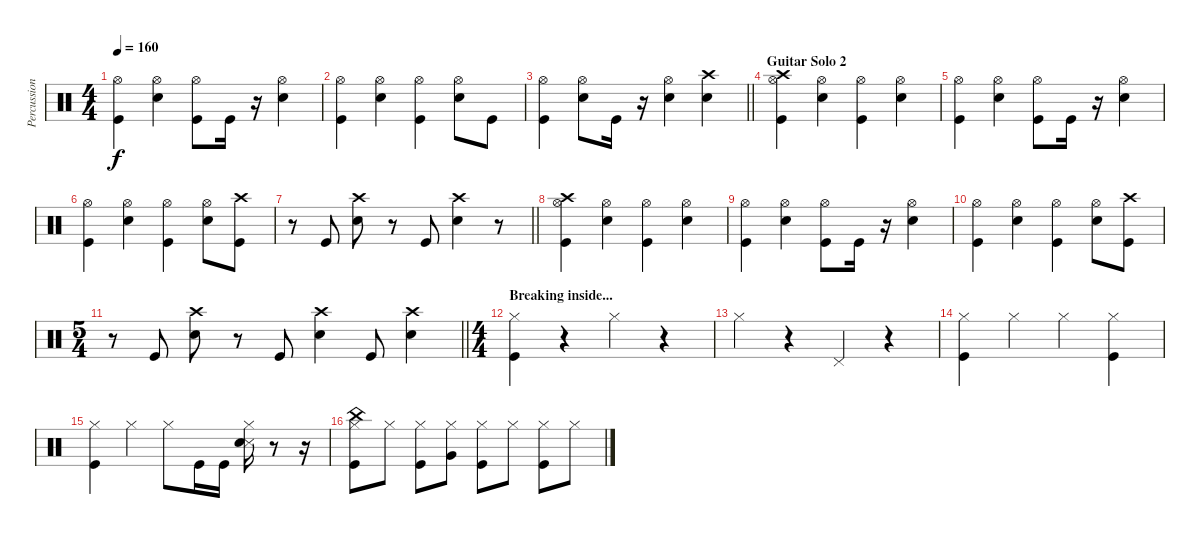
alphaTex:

\track ("Percussion" "Percussion") {instrument percussion}
\staff {score}
\articulation defaults
\ts (4 4)
\tempo 160
\clef neutral
\ks c
("Kick (hit)" "Hi-Hat (open)").4{dy f} ("Hi-Hat (open)" "Snare (hit) 2").4 ("Kick (hit)" "Hi-Hat (open)").8 "Kick (hit)".16 r.16 ("Snare (hit) 2" "Hi-Hat (open)").4 |
("Kick (hit)" "Hi-Hat (open)").4 ("Hi-Hat (open)" "Snare (hit) 2").4 ("Kick (hit)" "Hi-Hat (open)").4 ("Snare (hit) 2" "Hi-Hat (open)").8 "Kick (hit)".8 |
\barLineRight lightlight
("Kick (hit)" "Hi-Hat (open)").4 ("Snare (hit) 2" "Hi-Hat (open)").8 "Kick (hit)".16 r.16 ("Snare (hit) 2" "Hi-Hat (open)").4 ("Snare (hit) 2" "Crash high (hit)").4 |
\section ("" "Guitar Solo 2")
("Kick (hit)" "Crash high (hit)" "Hi-Hat (open)").4 ("Hi-Hat (open)" "Snare (hit) 2").4 ("Kick (hit)" "Hi-Hat (open)").4 ("Snare (hit) 2" "Hi-Hat (open)").4 |
("Kick (hit)" "Hi-Hat (open)").4 ("Hi-Hat (open)" "Snare (hit) 2").4 ("Kick (hit)" "Hi-Hat (open)").8 "Kick (hit)".16 r.16 ("Snare (hit) 2" "Hi-Hat (open)").4 |
("Kick (hit)" "Hi-Hat (open)").4 ("Hi-Hat (open)" "Snare (hit) 2").4 ("Kick (hit)" "Hi-Hat (open)").4 ("Snare (hit) 2" "Hi-Hat (open)").8 ("Kick (hit)" "Crash high (hit)").8 |
\barLineRight lightlight
r.8 "Kick (hit)".8 ("Snare (hit) 2" "Crash high (hit)").8 r.8 "Kick (hit)".8 ("Snare (hit) 2" "Crash high (hit)").4 r.8 |
("Kick (hit)" "Crash high (hit)" "Hi-Hat (open)").4 ("Hi-Hat (open)" "Snare (hit) 2").4 ("Kick (hit)" "Hi-Hat (open)").4 ("Snare (hit) 2" "Hi-Hat (open)").4 |
("Kick (hit)" "Hi-Hat (open)").4 ("Hi-Hat (open)" "Snare (hit) 2").4 ("Kick (hit)" "Hi-Hat (open)").8 "Kick (hit)".16 r.16 ("Snare (hit) 2" "Hi-Hat (open)").4 |
("Kick (hit)" "Hi-Hat (open)").4 ("Hi-Hat (open)" "Snare (hit) 2").4 ("Kick (hit)" "Hi-Hat (open)").4 ("Snare (hit) 2" "Hi-Hat (open)").8 ("Kick (hit)" "Crash high (hit)").8 |
\ts (5 4)
\barLineRight lightlight
r.8 "Kick (hit)".8 ("Snare (hit) 2" "Crash high (hit)").8 r.8 "Kick (hit)".8 ("Snare (hit) 2" "Crash high (hit)").4 "Kick (hit)".8 ("Snare (hit) 2" "Crash high (hit)").4 |
\ts (4 4)
\section ("" "Breaking inside...")
("Hi-Hat (closed)" "Kick (hit)").4 r.4 "Hi-Hat (closed)".4 r.4 |
"Hi-Hat (closed)".4 r.4 "Pedal Hi-Hat (hit)".4 r.4 |
("Hi-Hat (closed)" "Kick (hit)").4 "Hi-Hat (closed)".4 "Hi-Hat (closed)".4 ("Hi-Hat (closed)" "Kick (hit)").4 |
("Hi-Hat (closed)" "Kick (hit)").4 "Hi-Hat (closed)".4 "Hi-Hat (closed)".8 "Kick (hit)".16 "Kick (hit)".16 ("Hi-Hat (closed)" "Snare (side stick) 3" "Snare (hit) 2").16 r.8 r.16 |
("Kick (hit)" "Hi-Hat (closed)" "China (hit)").8 "Hi-Hat (closed)".8 ("Hi-Hat (closed)" "Kick (hit)").8 ("Hi-Hat (closed)" "Very Low Tom (hit)").8 ("Hi-Hat (closed)" "Kick (hit)").8 "Hi-Hat (closed)".8 ("Hi-Hat (closed)" "Kick (hit)").8 "Hi-Hat (closed)".8
